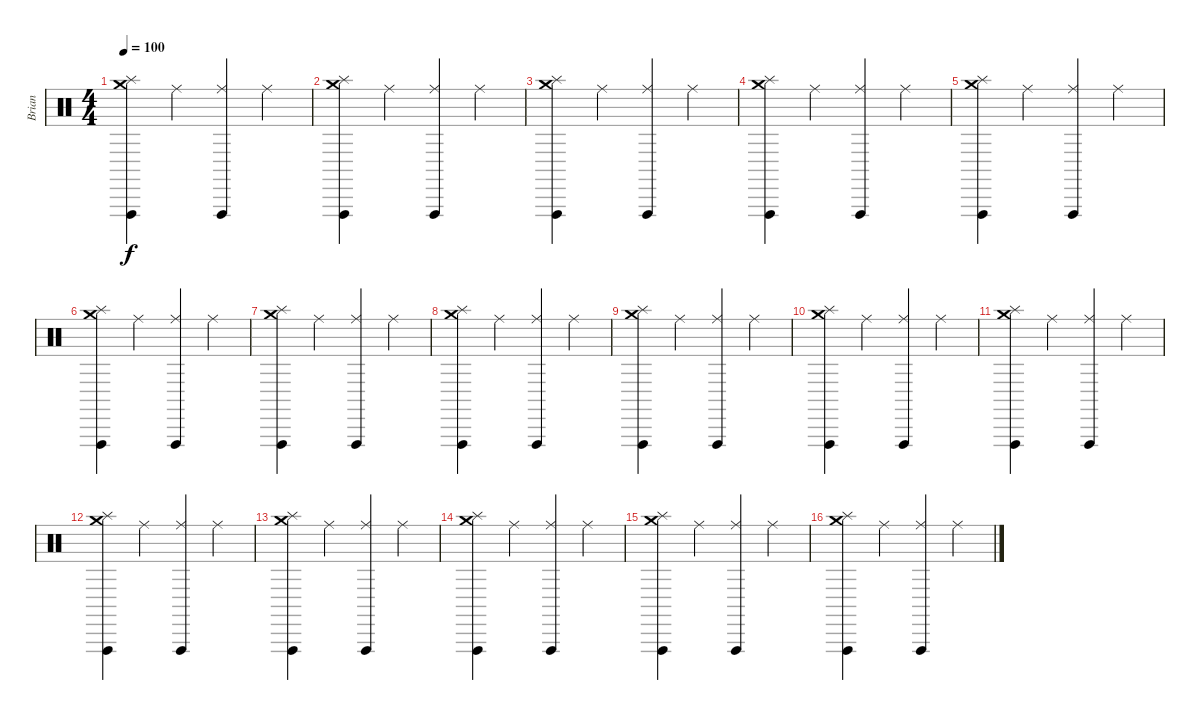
\track ("Brian" "Brian") {instrument percussion}
\staff {score}
\articulation defaults
\ts (4 4)
\tempo 100
\clef neutral
\ks c
("Crash medium (hit)" "Vibraslap (hit)" "Splash (hit)").4{dy f} "Ride (middle)".4 ("Vibraslap (hit)" "Ride (middle)").4 "Ride (middle)".4 |
("Crash medium (hit)" "Vibraslap (hit)" "Splash (hit)").4 "Ride (middle)".4 ("Vibraslap (hit)" "Ride (middle)").4 "Ride (middle)".4 |
("Crash medium (hit)" "Vibraslap (hit)" "Splash (hit)").4 "Ride (middle)".4 ("Vibraslap (hit)" "Ride (middle)").4 "Ride (middle)".4 |
("Crash medium (hit)" "Vibraslap (hit)" "Splash (hit)").4 "Ride (middle)".4 ("Vibraslap (hit)" "Ride (middle)").4 "Ride (middle)".4 |
("Crash medium (hit)" "Vibraslap (hit)" "Splash (hit)").4 "Ride (middle)".4 ("Vibraslap (hit)" "Ride (middle)").4 "Ride (middle)".4 |
("Crash medium (hit)" "Vibraslap (hit)" "Splash (hit)").4 "Ride (middle)".4 ("Vibraslap (hit)" "Ride (middle)").4 "Ride (middle)".4 |
("Crash medium (hit)" "Vibraslap (hit)" "Splash (hit)").4 "Ride (middle)".4 ("Vibraslap (hit)" "Ride (middle)").4 "Ride (middle)".4 |
("Crash medium (hit)" "Vibraslap (hit)" "Splash (hit)").4 "Ride (middle)".4 ("Vibraslap (hit)" "Ride (middle)").4 "Ride (middle)".4 |
("Crash medium (hit)" "Vibraslap (hit)" "Splash (hit)").4 "Ride (middle)".4 ("Vibraslap (hit)" "Ride (middle)").4 "Ride (middle)".4 |
("Crash medium (hit)" "Vibraslap (hit)" "Splash (hit)").4 "Ride (middle)".4 ("Vibraslap (hit)" "Ride (middle)").4 "Ride (middle)".4 |
("Crash medium (hit)" "Vibraslap (hit)" "Splash (hit)").4 "Ride (middle)".4 ("Vibraslap (hit)" "Ride (middle)").4 "Ride (middle)".4 |
("Crash medium (hit)" "Vibraslap (hit)" "Splash (hit)").4 "Ride (middle)".4 ("Vibraslap (hit)" "Ride (middle)").4 "Ride (middle)".4 |
("Crash medium (hit)" "Vibraslap (hit)" "Splash (hit)").4 "Ride (middle)".4 ("Vibraslap (hit)" "Ride (middle)").4 "Ride (middle)".4 |
("Crash medium (hit)" "Vibraslap (hit)" "Splash (hit)").4 "Ride (middle)".4 ("Vibraslap (hit)" "Ride (middle)").4 "Ride (middle)".4 |
("Crash medium (hit)" "Vibraslap (hit)" "Splash (hit)").4 "Ride (middle)".4 ("Vibraslap (hit)" "Ride (middle)").4 "Ride (middle)".4 |
("Crash medium (hit)" "Vibraslap (hit)" "Splash (hit)").4 "Ride (middle)".4 ("Vibraslap (hit)" "Ride (middle)").4 "Ride (middle)".4
